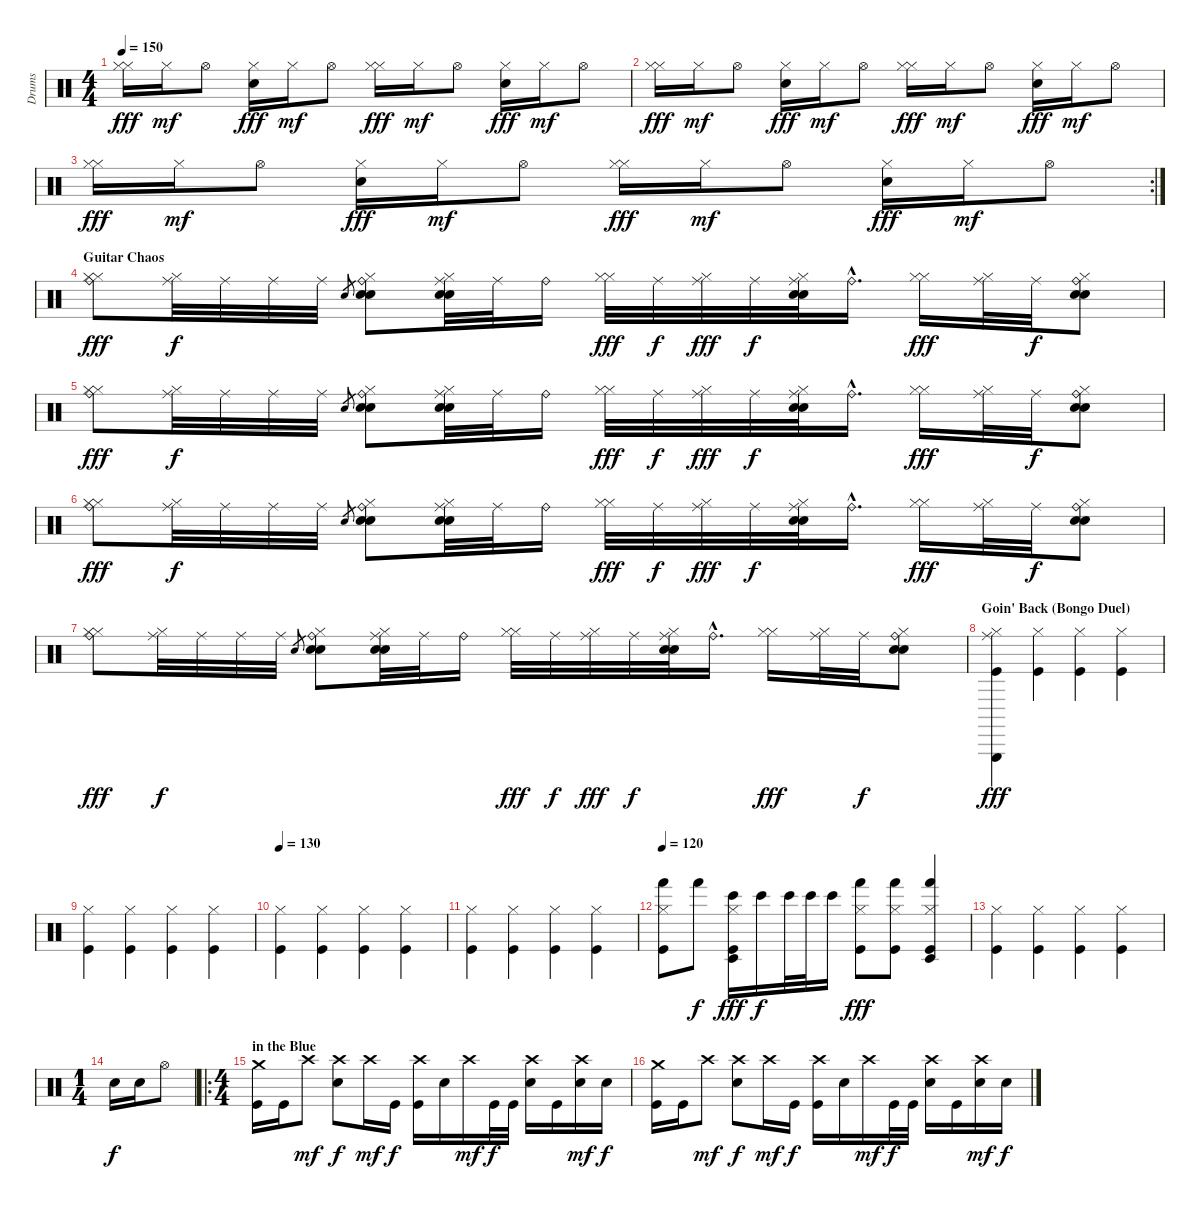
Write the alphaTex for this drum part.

\track ("Drums" "Drums") {instrument percussion}
\staff {score}
\articulation defaults
\ts (4 4)
\tempo 150
\clef neutral
\ks c
("Hi-Hat (closed)" "Hi-Hat (closed)").16{dy fff} "Hi-Hat (closed)".16{dy mf} "Hi-Hat (open)".8 ("Hi-Hat (closed)" "Hand Clap (hit)").16{dy fff} "Hi-Hat (closed)".16{dy mf} "Hi-Hat (open)".8 ("Hi-Hat (closed)" "Hi-Hat (closed)").16{dy fff} "Hi-Hat (closed)".16{dy mf} "Hi-Hat (open)".8 ("Hi-Hat (closed)" "Hand Clap (hit)").16{dy fff} "Hi-Hat (closed)".16{dy mf} "Hi-Hat (open)".8 |
("Hi-Hat (closed)" "Hi-Hat (closed)").16{dy fff} "Hi-Hat (closed)".16{dy mf} "Hi-Hat (open)".8 ("Hi-Hat (closed)" "Hand Clap (hit)").16{dy fff} "Hi-Hat (closed)".16{dy mf} "Hi-Hat (open)".8 ("Hi-Hat (closed)" "Hi-Hat (closed)").16{dy fff} "Hi-Hat (closed)".16{dy mf} "Hi-Hat (open)".8 ("Hi-Hat (closed)" "Hand Clap (hit)").16{dy fff} "Hi-Hat (closed)".16{dy mf} "Hi-Hat (open)".8 |
\rc 2
("Hi-Hat (closed)" "Hi-Hat (closed)").16{dy fff} "Hi-Hat (closed)".16{dy mf} "Hi-Hat (open)".8 ("Hi-Hat (closed)" "Hand Clap (hit)").16{dy fff} "Hi-Hat (closed)".16{dy mf} "Hi-Hat (open)".8 ("Hi-Hat (closed)" "Hi-Hat (closed)").16{dy fff} "Hi-Hat (closed)".16{dy mf} "Hi-Hat (open)".8 ("Hi-Hat (closed)" "Hand Clap (hit)").16{dy fff} "Hi-Hat (closed)".16{dy mf} "Hi-Hat (open)".8 |
\section ("" "Guitar Chaos")
("Ride (bell)" "Hi-Hat (closed)" "Hi-Hat (closed)").8{dy fff} ("Ride (middle)" "Hi-Hat (closed)").32{dy f} "Ride (middle)".32 "Ride (middle)".32 "Ride (middle)".32 "Hand Clap (hit)".8{gr} ("Ride (bell)" "Hi-Hat (closed)" "Hand Clap (hit)" "Hand Clap (hit)").8 ("Ride (middle)" "Hi-Hat (closed)" "Hand Clap (hit)" "Hand Clap (hit)").32 "Ride (middle)".32 "Ride (bell)".16 ("Hi-Hat (closed)" "Hi-Hat (closed)").32{dy fff} "Ride (middle)".32{dy f} ("Ride (middle)" "Hi-Hat (closed)").32{dy fff} "Ride (middle)".32{dy f} ("Ride (middle)" "Hi-Hat (closed)" "Hand Clap (hit)" "Hand Clap (hit)").32 "Ride (bell)"{hac}.16{d} ("Hi-Hat (closed)" "Hi-Hat (closed)").16{dy fff} ("Ride (middle)" "Hi-Hat (closed)").32 "Ride (middle)".32{dy f} ("Ride (bell)" "Hi-Hat (closed)" "Hand Clap (hit)" "Hand Clap (hit)").8 |
("Ride (bell)" "Hi-Hat (closed)" "Hi-Hat (closed)").8{dy fff} ("Ride (middle)" "Hi-Hat (closed)").32{dy f} "Ride (middle)".32 "Ride (middle)".32 "Ride (middle)".32 "Hand Clap (hit)".8{gr} ("Ride (bell)" "Hi-Hat (closed)" "Hand Clap (hit)" "Hand Clap (hit)").8 ("Ride (middle)" "Hi-Hat (closed)" "Hand Clap (hit)" "Hand Clap (hit)").32 "Ride (middle)".32 "Ride (bell)".16 ("Hi-Hat (closed)" "Hi-Hat (closed)").32{dy fff} "Ride (middle)".32{dy f} ("Ride (middle)" "Hi-Hat (closed)").32{dy fff} "Ride (middle)".32{dy f} ("Ride (middle)" "Hi-Hat (closed)" "Hand Clap (hit)" "Hand Clap (hit)").32 "Ride (bell)"{hac}.16{d} ("Hi-Hat (closed)" "Hi-Hat (closed)").16{dy fff} ("Ride (middle)" "Hi-Hat (closed)").32 "Ride (middle)".32{dy f} ("Ride (bell)" "Hi-Hat (closed)" "Hand Clap (hit)" "Hand Clap (hit)").8 |
("Ride (bell)" "Hi-Hat (closed)" "Hi-Hat (closed)").8{dy fff} ("Ride (middle)" "Hi-Hat (closed)").32{dy f} "Ride (middle)".32 "Ride (middle)".32 "Ride (middle)".32 "Hand Clap (hit)".8{gr} ("Ride (bell)" "Hi-Hat (closed)" "Hand Clap (hit)" "Hand Clap (hit)").8 ("Ride (middle)" "Hi-Hat (closed)" "Hand Clap (hit)" "Hand Clap (hit)").32 "Ride (middle)".32 "Ride (bell)".16 ("Hi-Hat (closed)" "Hi-Hat (closed)").32{dy fff} "Ride (middle)".32{dy f} ("Ride (middle)" "Hi-Hat (closed)").32{dy fff} "Ride (middle)".32{dy f} ("Ride (middle)" "Hi-Hat (closed)" "Hand Clap (hit)" "Hand Clap (hit)").32 "Ride (bell)"{hac}.16{d} ("Hi-Hat (closed)" "Hi-Hat (closed)").16{dy fff} ("Ride (middle)" "Hi-Hat (closed)").32 "Ride (middle)".32{dy f} ("Ride (bell)" "Hi-Hat (closed)" "Hand Clap (hit)" "Hand Clap (hit)").8 |
("Ride (bell)" "Hi-Hat (closed)" "Hi-Hat (closed)").8{dy fff} ("Ride (middle)" "Hi-Hat (closed)").32{dy f} "Ride (middle)".32 "Ride (middle)".32 "Ride (middle)".32 "Hand Clap (hit)".8{gr} ("Ride (bell)" "Hi-Hat (closed)" "Hand Clap (hit)" "Hand Clap (hit)").8 ("Ride (middle)" "Hi-Hat (closed)" "Hand Clap (hit)" "Hand Clap (hit)").32 "Ride (middle)".32 "Ride (bell)".16 ("Hi-Hat (closed)" "Hi-Hat (closed)").32{dy fff} "Ride (middle)".32{dy f} ("Ride (middle)" "Hi-Hat (closed)").32{dy fff} "Ride (middle)".32{dy f} ("Ride (middle)" "Hi-Hat (closed)" "Hand Clap (hit)" "Hand Clap (hit)").32 "Ride (bell)"{hac}.16{d} ("Hi-Hat (closed)" "Hi-Hat (closed)").16{dy fff} ("Ride (middle)" "Hi-Hat (closed)").32 "Ride (middle)".32{dy f} ("Ride (bell)" "Hi-Hat (closed)" "Hand Clap (hit)" "Hand Clap (hit)").8 |
\section ("" "Goin' Back (Bongo Duel)")
("Ride (middle)" "Triangle (hit)" "Kick (hit)" "Hi-Hat (closed)").4{dy fff} ("Kick (hit)" "Hi-Hat (closed)").4 ("Kick (hit)" "Hi-Hat (closed)").4 ("Kick (hit)" "Hi-Hat (closed)").4 |
("Kick (hit)" "Hi-Hat (closed)").4 ("Kick (hit)" "Hi-Hat (closed)").4 ("Kick (hit)" "Hi-Hat (closed)").4 ("Kick (hit)" "Hi-Hat (closed)").4 |
\tempo 130
("Kick (hit)" "Hi-Hat (closed)").4 ("Kick (hit)" "Hi-Hat (closed)").4 ("Kick (hit)" "Hi-Hat (closed)").4 ("Kick (hit)" "Hi-Hat (closed)").4 |
("Kick (hit)" "Hi-Hat (closed)").4 ("Kick (hit)" "Hi-Hat (closed)").4 ("Kick (hit)" "Hi-Hat (closed)").4 ("Kick (hit)" "Hi-Hat (closed)").4 |
\tempo 120
("Hand (hit)" "Kick (hit)" "Hi-Hat (closed)").8 "Hand (hit)".8{dy f} ("Timbale low (hit)" "Bongo High (hit)" "Kick (hit)" "Hi-Hat (closed)").16{dy fff} "Bongo High (hit)".16{dy f} "Bongo High (hit)".32 "Bongo High (hit)".32 "Bongo High (hit)".16 ("Hand (hit)" "Kick (hit)" "Hi-Hat (closed)").8{dy fff} ("Hand (hit)" "Kick (hit)" "Hi-Hat (closed)").8 ("Timbale low (hit)" "Hand (hit)" "Kick (hit)" "Hi-Hat (closed)").4 |
("Kick (hit)" "Hi-Hat (closed)").4 ("Kick (hit)" "Hi-Hat (closed)").4 ("Kick (hit)" "Hi-Hat (closed)").4 ("Kick (hit)" "Hi-Hat (closed)").4 |
\ts (1 4)
"Electric Snare (hit)".16{dy f} "Electric Snare (hit)".16 "Hi-Hat (open)".8 |
\ro
\ts (4 4)
\section ("" "in the Blue")
("Crash medium (hit)" "Kick (hit)").16 "Kick (hit)".16 "Crash high (hit)".8{dy mf} ("Crash high (hit)" "Electric Snare (hit)").8{dy f} "Crash high (hit)".16{dy mf} "Kick (hit)".16{dy f} ("Crash high (hit)" "Kick (hit)").16 "Electric Snare (hit)".16 "Crash high (hit)".16{dy mf} "Kick (hit)".32{dy f} "Kick (hit)".32 ("Crash high (hit)" "Electric Snare (hit)").16 "Kick (hit)".16 ("Crash high (hit)" "Electric Snare (hit)").16{dy mf} "Electric Snare (hit)".16{dy f} |
("Crash medium (hit)" "Kick (hit)").16 "Kick (hit)".16 "Crash high (hit)".8{dy mf} ("Crash high (hit)" "Electric Snare (hit)").8{dy f} "Crash high (hit)".16{dy mf} "Kick (hit)".16{dy f} ("Crash high (hit)" "Kick (hit)").16 "Electric Snare (hit)".16 "Crash high (hit)".16{dy mf} "Kick (hit)".32{dy f} "Kick (hit)".32 ("Crash high (hit)" "Electric Snare (hit)").16 "Kick (hit)".16 ("Crash high (hit)" "Electric Snare (hit)").16{dy mf} "Electric Snare (hit)".16{dy f}
